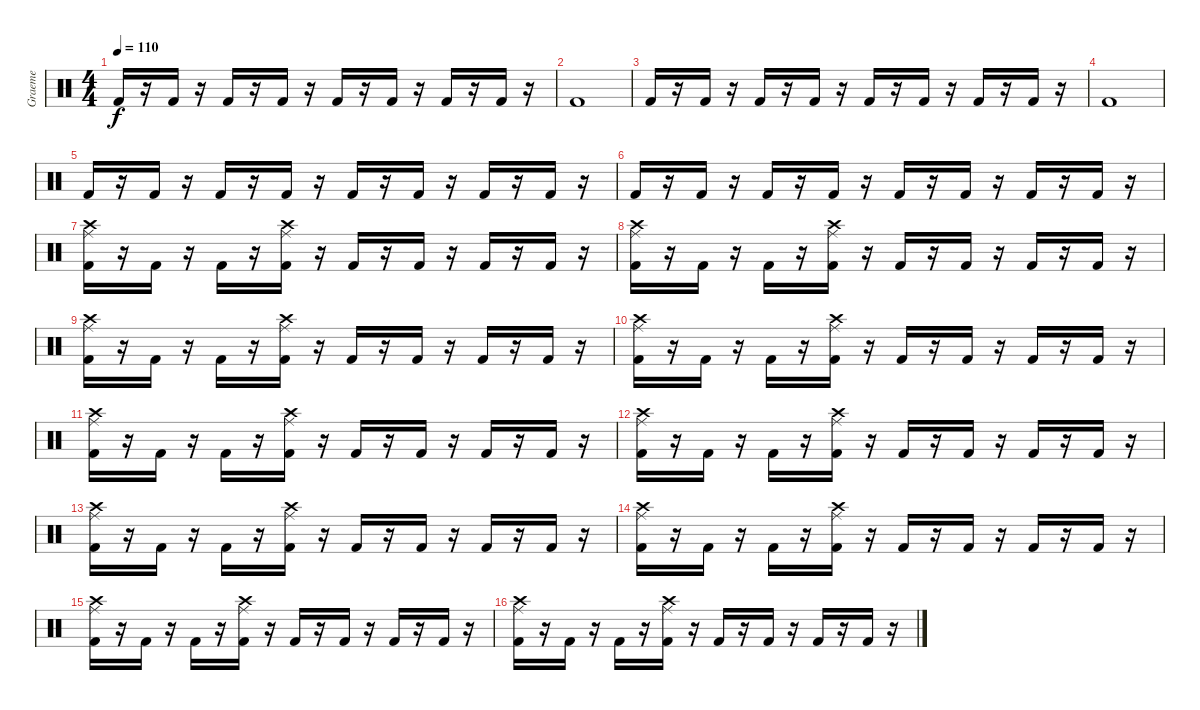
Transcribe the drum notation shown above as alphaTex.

\track ("Graeme" "Graeme") {instrument percussion}
\staff {score}
\articulation defaults
\ts (4 4)
\tempo 110
\clef neutral
\ks c "Kick (hit) 2".16{dy f}
r.16 "Kick (hit) 2".16 r.16 "Kick (hit) 2".16 r.16 "Kick (hit) 2".16 r.16 "Kick (hit) 2".16 r.16 "Kick (hit) 2".16 r.16 "Kick (hit) 2".16 r.16 "Kick (hit) 2".16 r.16 |
"Kick (hit) 2".1 |
"Kick (hit) 2".16 r.16 "Kick (hit) 2".16 r.16 "Kick (hit) 2".16 r.16 "Kick (hit) 2".16 r.16 "Kick (hit) 2".16 r.16 "Kick (hit) 2".16 r.16 "Kick (hit) 2".16 r.16 "Kick (hit) 2".16 r.16 |
"Kick (hit) 2".1 |
"Kick (hit) 2".16 r.16 "Kick (hit) 2".16 r.16 "Kick (hit) 2".16 r.16 "Kick (hit) 2".16 r.16 "Kick (hit) 2".16 r.16 "Kick (hit) 2".16 r.16 "Kick (hit) 2".16 r.16 "Kick (hit) 2".16 r.16 |
"Kick (hit) 2".16 r.16 "Kick (hit) 2".16 r.16 "Kick (hit) 2".16 r.16 "Kick (hit) 2".16 r.16 "Kick (hit) 2".16 r.16 "Kick (hit) 2".16 r.16 "Kick (hit) 2".16 r.16 "Kick (hit) 2".16 r.16 |
("Ride (middle)" "Crash high (hit)" "Kick (hit) 2").16 r.16 "Kick (hit) 2".16 r.16 "Kick (hit) 2".16 r.16 ("Ride (middle)" "Crash high (hit)" "Kick (hit) 2").16 r.16 "Kick (hit) 2".16 r.16 "Kick (hit) 2".16 r.16 "Kick (hit) 2".16 r.16 "Kick (hit) 2".16 r.16 |
("Ride (middle)" "Crash high (hit)" "Kick (hit) 2").16 r.16 "Kick (hit) 2".16 r.16 "Kick (hit) 2".16 r.16 ("Ride (middle)" "Crash high (hit)" "Kick (hit) 2").16 r.16 "Kick (hit) 2".16 r.16 "Kick (hit) 2".16 r.16 "Kick (hit) 2".16 r.16 "Kick (hit) 2".16 r.16 |
("Ride (middle)" "Crash high (hit)" "Kick (hit) 2").16 r.16 "Kick (hit) 2".16 r.16 "Kick (hit) 2".16 r.16 ("Ride (middle)" "Crash high (hit)" "Kick (hit) 2").16 r.16 "Kick (hit) 2".16 r.16 "Kick (hit) 2".16 r.16 "Kick (hit) 2".16 r.16 "Kick (hit) 2".16 r.16 |
("Ride (middle)" "Crash high (hit)" "Kick (hit) 2").16 r.16 "Kick (hit) 2".16 r.16 "Kick (hit) 2".16 r.16 ("Ride (middle)" "Crash high (hit)" "Kick (hit) 2").16 r.16 "Kick (hit) 2".16 r.16 "Kick (hit) 2".16 r.16 "Kick (hit) 2".16 r.16 "Kick (hit) 2".16 r.16 |
("Ride (middle)" "Crash high (hit)" "Kick (hit) 2").16 r.16 "Kick (hit) 2".16 r.16 "Kick (hit) 2".16 r.16 ("Ride (middle)" "Crash high (hit)" "Kick (hit) 2").16 r.16 "Kick (hit) 2".16 r.16 "Kick (hit) 2".16 r.16 "Kick (hit) 2".16 r.16 "Kick (hit) 2".16 r.16 |
("Ride (middle)" "Crash high (hit)" "Kick (hit) 2").16 r.16 "Kick (hit) 2".16 r.16 "Kick (hit) 2".16 r.16 ("Ride (middle)" "Crash high (hit)" "Kick (hit) 2").16 r.16 "Kick (hit) 2".16 r.16 "Kick (hit) 2".16 r.16 "Kick (hit) 2".16 r.16 "Kick (hit) 2".16 r.16 |
("Ride (middle)" "Crash high (hit)" "Kick (hit) 2").16 r.16 "Kick (hit) 2".16 r.16 "Kick (hit) 2".16 r.16 ("Ride (middle)" "Crash high (hit)" "Kick (hit) 2").16 r.16 "Kick (hit) 2".16 r.16 "Kick (hit) 2".16 r.16 "Kick (hit) 2".16 r.16 "Kick (hit) 2".16 r.16 |
("Ride (middle)" "Crash high (hit)" "Kick (hit) 2").16 r.16 "Kick (hit) 2".16 r.16 "Kick (hit) 2".16 r.16 ("Ride (middle)" "Crash high (hit)" "Kick (hit) 2").16 r.16 "Kick (hit) 2".16 r.16 "Kick (hit) 2".16 r.16 "Kick (hit) 2".16 r.16 "Kick (hit) 2".16 r.16 |
("Ride (middle)" "Crash high (hit)" "Kick (hit) 2").16 r.16 "Kick (hit) 2".16 r.16 "Kick (hit) 2".16 r.16 ("Ride (middle)" "Crash high (hit)" "Kick (hit) 2").16 r.16 "Kick (hit) 2".16 r.16 "Kick (hit) 2".16 r.16 "Kick (hit) 2".16 r.16 "Kick (hit) 2".16 r.16 |
("Ride (middle)" "Crash high (hit)" "Kick (hit) 2").16 r.16 "Kick (hit) 2".16 r.16 "Kick (hit) 2".16 r.16 ("Ride (middle)" "Crash high (hit)" "Kick (hit) 2").16 r.16 "Kick (hit) 2".16 r.16 "Kick (hit) 2".16 r.16 "Kick (hit) 2".16 r.16 "Kick (hit) 2".16 r.16
